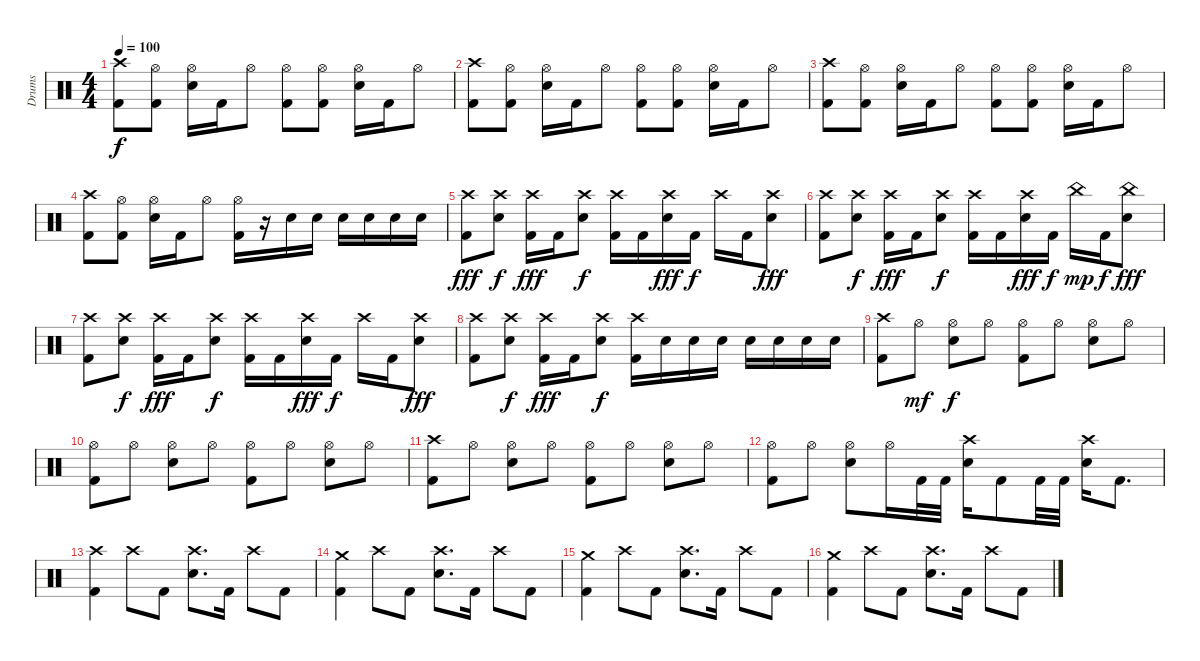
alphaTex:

\track ("Drums" "Drums") {instrument percussion}
\staff {score}
\articulation defaults
\ts (4 4)
\tempo 100
\clef neutral
\ks c
("Crash high (hit)" "Kick (hit) 2").8{dy f} ("Hi-Hat (open)" "Kick (hit) 2").8 ("Hi-Hat (open)" "Snare (hit) 2").16 "Kick (hit) 2".16 "Hi-Hat (open)".8 ("Hi-Hat (open)" "Kick (hit) 2").8 ("Hi-Hat (open)" "Kick (hit) 2").8 ("Hi-Hat (open)" "Snare (hit) 2").16 "Kick (hit) 2".16 "Hi-Hat (open)".8 |
("Crash high (hit)" "Kick (hit) 2").8 ("Hi-Hat (open)" "Kick (hit) 2").8 ("Hi-Hat (open)" "Snare (hit) 2").16 "Kick (hit) 2".16 "Hi-Hat (open)".8 ("Hi-Hat (open)" "Kick (hit) 2").8 ("Hi-Hat (open)" "Kick (hit) 2").8 ("Hi-Hat (open)" "Snare (hit) 2").16 "Kick (hit) 2".16 "Hi-Hat (open)".8 |
("Crash high (hit)" "Kick (hit) 2").8 ("Hi-Hat (open)" "Kick (hit) 2").8 ("Hi-Hat (open)" "Snare (hit) 2").16 "Kick (hit) 2".16 "Hi-Hat (open)".8 ("Hi-Hat (open)" "Kick (hit) 2").8 ("Hi-Hat (open)" "Kick (hit) 2").8 ("Hi-Hat (open)" "Snare (hit) 2").16 "Kick (hit) 2".16 "Hi-Hat (open)".8 |
("Crash high (hit)" "Kick (hit) 2").8 ("Hi-Hat (open)" "Kick (hit) 2").8 ("Hi-Hat (open)" "Snare (hit) 2").16 "Kick (hit) 2".16 "Hi-Hat (open)".8 ("Hi-Hat (open)" "Kick (hit) 2").16 r.16 "Snare (hit) 2".16 "Snare (hit) 2".16 "Snare (hit) 2".16 "Snare (hit) 2".16 "Snare (hit) 2".16 "Snare (hit) 2".16 |
("Crash high (hit)" "Kick (hit) 2").8{dy fff} ("Crash high (hit)" "Snare (hit) 2").8{dy f} ("Crash high (hit)" "Kick (hit) 2").16{dy fff} "Kick (hit) 2".16 ("Crash high (hit)" "Snare (hit) 2").8{dy f} ("Crash high (hit)" "Kick (hit) 2").16 "Kick (hit) 2".16 ("Crash high (hit)" "Snare (hit) 2").16{dy fff} "Kick (hit) 2".16{dy f} "Crash high (hit)".16 "Kick (hit) 2".16 ("Crash high (hit)" "Snare (hit) 2").8{dy fff} |
("Crash high (hit)" "Kick (hit) 2").8 ("Crash high (hit)" "Snare (hit) 2").8{dy f} ("Crash high (hit)" "Kick (hit) 2").16{dy fff} "Kick (hit) 2".16 ("Crash high (hit)" "Snare (hit) 2").8{dy f} ("Crash high (hit)" "Kick (hit) 2").16 "Kick (hit) 2".16 ("Crash high (hit)" "Snare (hit) 2").16{dy fff} "Kick (hit) 2".16{dy f} "China (hit)".16{dy mp} "Kick (hit) 2".16{dy f} ("China (hit)" "Snare (hit) 2").8{dy fff} |
("Crash high (hit)" "Kick (hit) 2").8 ("Crash high (hit)" "Snare (hit) 2").8{dy f} ("Crash high (hit)" "Kick (hit) 2").16{dy fff} "Kick (hit) 2".16 ("Crash high (hit)" "Snare (hit) 2").8{dy f} ("Crash high (hit)" "Kick (hit) 2").16 "Kick (hit) 2".16 ("Crash high (hit)" "Snare (hit) 2").16{dy fff} "Kick (hit) 2".16{dy f} "Crash high (hit)".16 "Kick (hit) 2".16 ("Crash high (hit)" "Snare (hit) 2").8{dy fff} |
("Crash high (hit)" "Kick (hit) 2").8 ("Crash high (hit)" "Snare (hit) 2").8{dy f} ("Crash high (hit)" "Kick (hit) 2").16{dy fff} "Kick (hit) 2".16 ("Crash high (hit)" "Snare (hit) 2").8{dy f} ("Crash high (hit)" "Kick (hit) 2").16 "Snare (hit) 2".16 "Snare (hit) 2".16 "Snare (hit) 2".16 "Snare (hit) 2".16 "Snare (hit) 2".16 "Snare (hit) 2".16 "Snare (hit) 2".16 |
("Crash high (hit)" "Kick (hit) 2").8 "Hi-Hat (open)".8{dy mf} ("Hi-Hat (open)" "Snare (hit) 2").8{dy f} "Hi-Hat (open)".8 ("Hi-Hat (open)" "Kick (hit) 2").8 "Hi-Hat (open)".8 ("Hi-Hat (open)" "Snare (hit) 2").8 "Hi-Hat (open)".8 |
("Hi-Hat (open)" "Kick (hit) 2").8 "Hi-Hat (open)".8 ("Hi-Hat (open)" "Snare (hit) 2").8 "Hi-Hat (open)".8 ("Hi-Hat (open)" "Kick (hit) 2").8 "Hi-Hat (open)".8 ("Hi-Hat (open)" "Snare (hit) 2").8 "Hi-Hat (open)".8 |
("Crash high (hit)" "Kick (hit) 2").8 "Hi-Hat (open)".8 ("Hi-Hat (open)" "Snare (hit) 2").8 "Hi-Hat (open)".8 ("Hi-Hat (open)" "Kick (hit) 2").8 "Hi-Hat (open)".8 ("Hi-Hat (open)" "Snare (hit) 2").8 "Hi-Hat (open)".8 |
("Hi-Hat (open)" "Kick (hit) 2").8 "Hi-Hat (open)".8 ("Hi-Hat (open)" "Snare (hit) 2").8 "Hi-Hat (open)".16 "Kick (hit) 2".32 "Kick (hit) 2".32 ("Crash high (hit)" "Snare (hit) 2").16 "Kick (hit) 2".8 "Kick (hit) 2".32 "Kick (hit) 2".32 ("Crash high (hit)" "Snare (hit) 2").16 "Kick (hit) 2".8{d} |
("Crash high (hit)" "Kick (hit) 2").4 "Crash high (hit)".8 "Kick (hit) 2".8 ("Crash high (hit)" "Snare (hit) 2").8{d} "Kick (hit) 2".16 "Crash high (hit)".8 "Kick (hit) 2".8 |
("Crash medium (hit)" "Kick (hit) 2").4 "Crash high (hit)".8 "Kick (hit) 2".8 ("Crash high (hit)" "Snare (hit) 2").8{d} "Kick (hit) 2".16 "Crash high (hit)".8 "Kick (hit) 2".8 |
("Crash medium (hit)" "Kick (hit) 2").4 "Crash high (hit)".8 "Kick (hit) 2".8 ("Crash high (hit)" "Snare (hit) 2").8{d} "Kick (hit) 2".16 "Crash high (hit)".8 "Kick (hit) 2".8 |
("Crash medium (hit)" "Kick (hit) 2").4 "Crash high (hit)".8 "Kick (hit) 2".8 ("Crash high (hit)" "Snare (hit) 2").8{d} "Kick (hit) 2".16 "Crash high (hit)".8 "Kick (hit) 2".8
